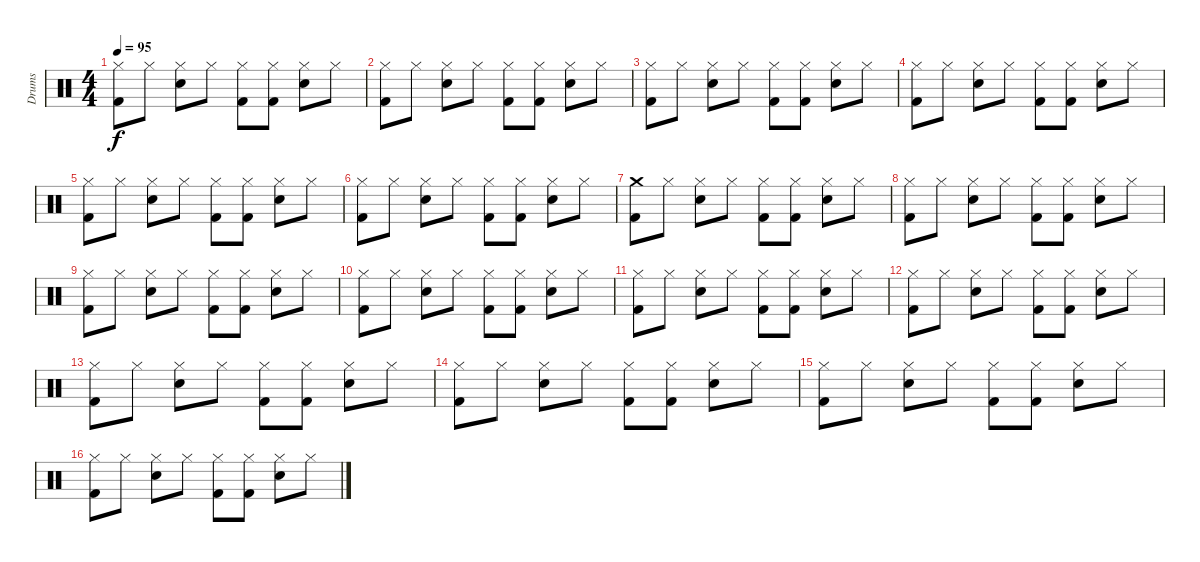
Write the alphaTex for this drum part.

\track ("Drums" "Drums") {instrument percussion}
\staff {score}
\articulation defaults
\ts (4 4)
\tempo 95
\clef neutral
\ks c
("Hi-Hat (closed)" "Kick (hit) 2").8{dy f} "Hi-Hat (closed)".8 ("Hi-Hat (closed)" "Snare (hit) 2").8 "Hi-Hat (closed)".8 ("Hi-Hat (closed)" "Kick (hit) 2").8 ("Hi-Hat (closed)" "Kick (hit) 2").8 ("Hi-Hat (closed)" "Snare (hit) 2").8 "Hi-Hat (closed)".8 |
("Hi-Hat (closed)" "Kick (hit) 2").8 "Hi-Hat (closed)".8 ("Hi-Hat (closed)" "Snare (hit) 2").8 "Hi-Hat (closed)".8 ("Hi-Hat (closed)" "Kick (hit) 2").8 ("Hi-Hat (closed)" "Kick (hit) 2").8 ("Hi-Hat (closed)" "Snare (hit) 2").8 "Hi-Hat (closed)".8 |
("Hi-Hat (closed)" "Kick (hit) 2").8 "Hi-Hat (closed)".8 ("Hi-Hat (closed)" "Snare (hit) 2").8 "Hi-Hat (closed)".8 ("Hi-Hat (closed)" "Kick (hit) 2").8 ("Hi-Hat (closed)" "Kick (hit) 2").8 ("Hi-Hat (closed)" "Snare (hit) 2").8 "Hi-Hat (closed)".8 |
("Hi-Hat (closed)" "Kick (hit) 2").8 "Hi-Hat (closed)".8 ("Hi-Hat (closed)" "Snare (hit) 2").8 "Hi-Hat (closed)".8 ("Hi-Hat (closed)" "Kick (hit) 2").8 ("Hi-Hat (closed)" "Kick (hit) 2").8 ("Hi-Hat (closed)" "Snare (hit) 2").8 "Hi-Hat (closed)".8 |
("Hi-Hat (closed)" "Kick (hit) 2").8 "Hi-Hat (closed)".8 ("Hi-Hat (closed)" "Snare (hit) 2").8 "Hi-Hat (closed)".8 ("Hi-Hat (closed)" "Kick (hit) 2").8 ("Hi-Hat (closed)" "Kick (hit) 2").8 ("Hi-Hat (closed)" "Snare (hit) 2").8 "Hi-Hat (closed)".8 |
("Hi-Hat (closed)" "Kick (hit) 2").8 "Hi-Hat (closed)".8 ("Hi-Hat (closed)" "Snare (hit) 2").8 "Hi-Hat (closed)".8 ("Hi-Hat (closed)" "Kick (hit) 2").8 ("Hi-Hat (closed)" "Kick (hit) 2").8 ("Hi-Hat (closed)" "Snare (hit) 2").8 "Hi-Hat (closed)".8 |
("Crash medium (hit)" "Kick (hit) 2").8 "Hi-Hat (closed)".8 ("Hi-Hat (closed)" "Snare (hit) 2").8 "Hi-Hat (closed)".8 ("Hi-Hat (closed)" "Kick (hit) 2").8 ("Hi-Hat (closed)" "Kick (hit) 2").8 ("Hi-Hat (closed)" "Snare (hit) 2").8 "Hi-Hat (closed)".8 |
("Hi-Hat (closed)" "Kick (hit) 2").8 "Hi-Hat (closed)".8 ("Hi-Hat (closed)" "Snare (hit) 2").8 "Hi-Hat (closed)".8 ("Hi-Hat (closed)" "Kick (hit) 2").8 ("Hi-Hat (closed)" "Kick (hit) 2").8 ("Hi-Hat (closed)" "Snare (hit) 2").8 "Hi-Hat (closed)".8 |
("Hi-Hat (closed)" "Kick (hit) 2").8 "Hi-Hat (closed)".8 ("Hi-Hat (closed)" "Snare (hit) 2").8 "Hi-Hat (closed)".8 ("Hi-Hat (closed)" "Kick (hit) 2").8 ("Hi-Hat (closed)" "Kick (hit) 2").8 ("Hi-Hat (closed)" "Snare (hit) 2").8 "Hi-Hat (closed)".8 |
("Hi-Hat (closed)" "Kick (hit) 2").8 "Hi-Hat (closed)".8 ("Hi-Hat (closed)" "Snare (hit) 2").8 "Hi-Hat (closed)".8 ("Hi-Hat (closed)" "Kick (hit) 2").8 ("Hi-Hat (closed)" "Kick (hit) 2").8 ("Hi-Hat (closed)" "Snare (hit) 2").8 "Hi-Hat (closed)".8 |
("Hi-Hat (closed)" "Kick (hit) 2").8 "Hi-Hat (closed)".8 ("Hi-Hat (closed)" "Snare (hit) 2").8 "Hi-Hat (closed)".8 ("Hi-Hat (closed)" "Kick (hit) 2").8 ("Hi-Hat (closed)" "Kick (hit) 2").8 ("Hi-Hat (closed)" "Snare (hit) 2").8 "Hi-Hat (closed)".8 |
("Hi-Hat (closed)" "Kick (hit) 2").8 "Hi-Hat (closed)".8 ("Hi-Hat (closed)" "Snare (hit) 2").8 "Hi-Hat (closed)".8 ("Hi-Hat (closed)" "Kick (hit) 2").8 ("Hi-Hat (closed)" "Kick (hit) 2").8 ("Hi-Hat (closed)" "Snare (hit) 2").8 "Hi-Hat (closed)".8 |
("Hi-Hat (closed)" "Kick (hit) 2").8 "Hi-Hat (closed)".8 ("Hi-Hat (closed)" "Snare (hit) 2").8 "Hi-Hat (closed)".8 ("Hi-Hat (closed)" "Kick (hit) 2").8 ("Hi-Hat (closed)" "Kick (hit) 2").8 ("Hi-Hat (closed)" "Snare (hit) 2").8 "Hi-Hat (closed)".8 |
("Hi-Hat (closed)" "Kick (hit) 2").8 "Hi-Hat (closed)".8 ("Hi-Hat (closed)" "Snare (hit) 2").8 "Hi-Hat (closed)".8 ("Hi-Hat (closed)" "Kick (hit) 2").8 ("Hi-Hat (closed)" "Kick (hit) 2").8 ("Hi-Hat (closed)" "Snare (hit) 2").8 "Hi-Hat (closed)".8 |
("Hi-Hat (closed)" "Kick (hit) 2").8 "Hi-Hat (closed)".8 ("Hi-Hat (closed)" "Snare (hit) 2").8 "Hi-Hat (closed)".8 ("Hi-Hat (closed)" "Kick (hit) 2").8 ("Hi-Hat (closed)" "Kick (hit) 2").8 ("Hi-Hat (closed)" "Snare (hit) 2").8 "Hi-Hat (closed)".8 |
("Hi-Hat (closed)" "Kick (hit) 2").8 "Hi-Hat (closed)".8 ("Hi-Hat (closed)" "Snare (hit) 2").8 "Hi-Hat (closed)".8 ("Hi-Hat (closed)" "Kick (hit) 2").8 ("Hi-Hat (closed)" "Kick (hit) 2").8 ("Hi-Hat (closed)" "Snare (hit) 2").8 "Hi-Hat (closed)".8
